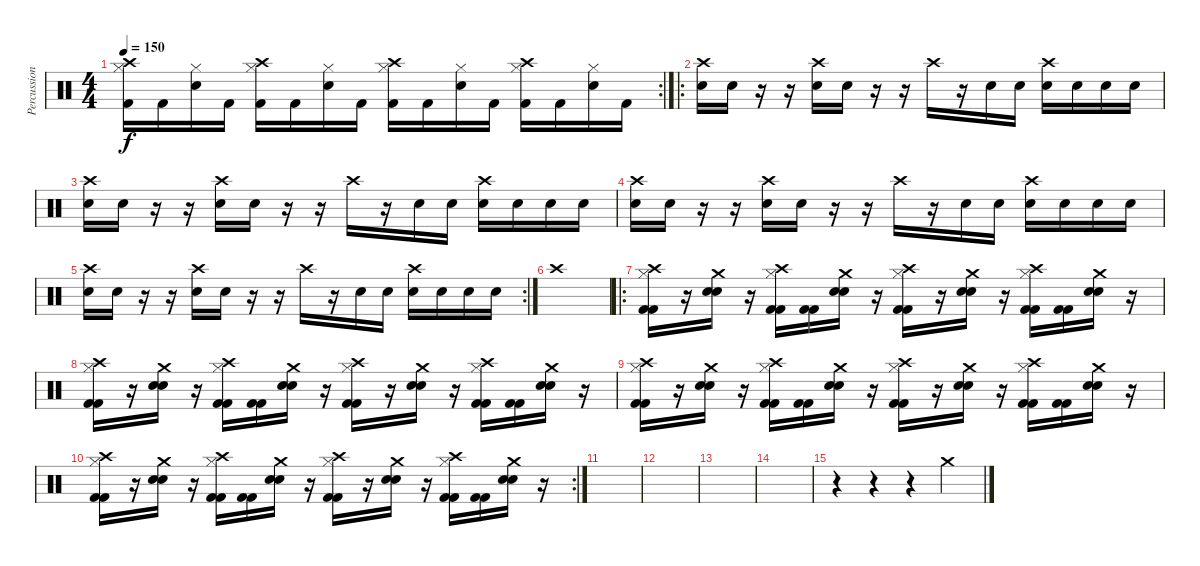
\track ("Percussions" "Percussion") {instrument percussion}
\staff {score}
\articulation defaults
\rc 2
\ts (4 4)
\tempo 150
\clef neutral
\ks c
("Crash high (hit)" "Hi-Hat (closed)" "Kick (hit) 2").16{dy f} "Kick (hit) 2".16 ("Hi-Hat (closed)" "Snare (hit) 2").16 "Kick (hit) 2".16 ("Crash high (hit)" "Hi-Hat (closed)" "Kick (hit) 2").16 "Kick (hit) 2".16 ("Hi-Hat (closed)" "Snare (hit) 2").16 "Kick (hit) 2".16 ("Crash high (hit)" "Hi-Hat (closed)" "Kick (hit) 2").16 "Kick (hit) 2".16 ("Hi-Hat (closed)" "Snare (hit) 2").16 "Kick (hit) 2".16 ("Crash high (hit)" "Hi-Hat (closed)" "Kick (hit) 2").16 "Kick (hit) 2".16 ("Hi-Hat (closed)" "Snare (hit) 2").16 "Kick (hit) 2".16 |
\ro
("Crash high (hit)" "Snare (hit) 2").16 "Snare (hit) 2".16 r.16 r.16 ("Crash high (hit)" "Snare (hit) 2").16 "Snare (hit) 2".16 r.16 r.16 "Crash high (hit)".16 r.16 "Snare (hit) 2".16 "Snare (hit) 2".16 ("Crash high (hit)" "Snare (hit) 2").16 "Snare (hit) 2".16 "Snare (hit) 2".16 "Snare (hit) 2".16 |
("Crash high (hit)" "Snare (hit) 2").16 "Snare (hit) 2".16 r.16 r.16 ("Crash high (hit)" "Snare (hit) 2").16 "Snare (hit) 2".16 r.16 r.16 "Crash high (hit)".16 r.16 "Snare (hit) 2".16 "Snare (hit) 2".16 ("Crash high (hit)" "Snare (hit) 2").16 "Snare (hit) 2".16 "Snare (hit) 2".16 "Snare (hit) 2".16 |
("Crash high (hit)" "Snare (hit) 2").16 "Snare (hit) 2".16 r.16 r.16 ("Crash high (hit)" "Snare (hit) 2").16 "Snare (hit) 2".16 r.16 r.16 "Crash high (hit)".16 r.16 "Snare (hit) 2".16 "Snare (hit) 2".16 ("Crash high (hit)" "Snare (hit) 2").16 "Snare (hit) 2".16 "Snare (hit) 2".16 "Snare (hit) 2".16 |
\rc 2
("Crash high (hit)" "Snare (hit) 2").16 "Snare (hit) 2".16 r.16 r.16 ("Crash high (hit)" "Snare (hit) 2").16 "Snare (hit) 2".16 r.16 r.16 "Crash high (hit)".16 r.16 "Snare (hit) 2".16 "Snare (hit) 2".16 ("Crash high (hit)" "Snare (hit) 2").16 "Snare (hit) 2".16 "Snare (hit) 2".16 "Snare (hit) 2".16 |
"Crash high (hit)".1 |
\ro
("Crash high (hit)" "Hi-Hat (closed)" "Kick (hit) 2" "Kick (hit) 2").16 r.16 ("Crash medium (hit)" "Snare (hit) 2" "Snare (hit) 2").16 r.16 ("Crash high (hit)" "Hi-Hat (closed)" "Kick (hit) 2" "Kick (hit) 2").16 ("Kick (hit) 2" "Kick (hit) 2").16 ("Crash medium (hit)" "Snare (hit) 2" "Snare (hit) 2").16 r.16 ("Crash high (hit)" "Hi-Hat (closed)" "Kick (hit) 2" "Kick (hit) 2").16 r.16 ("Crash medium (hit)" "Snare (hit) 2" "Snare (hit) 2").16 r.16 ("Crash high (hit)" "Hi-Hat (closed)" "Kick (hit) 2" "Kick (hit) 2").16 ("Kick (hit) 2" "Kick (hit) 2").16 ("Crash medium (hit)" "Snare (hit) 2" "Snare (hit) 2").16 r.16 |
("Crash high (hit)" "Hi-Hat (closed)" "Kick (hit) 2" "Kick (hit) 2").16 r.16 ("Crash medium (hit)" "Snare (hit) 2" "Snare (hit) 2").16 r.16 ("Crash high (hit)" "Hi-Hat (closed)" "Kick (hit) 2" "Kick (hit) 2").16 ("Kick (hit) 2" "Kick (hit) 2").16 ("Crash medium (hit)" "Snare (hit) 2" "Snare (hit) 2").16 r.16 ("Crash high (hit)" "Hi-Hat (closed)" "Kick (hit) 2" "Kick (hit) 2").16 r.16 ("Crash medium (hit)" "Snare (hit) 2" "Snare (hit) 2").16 r.16 ("Crash high (hit)" "Hi-Hat (closed)" "Kick (hit) 2" "Kick (hit) 2").16 ("Kick (hit) 2" "Kick (hit) 2").16 ("Crash medium (hit)" "Snare (hit) 2" "Snare (hit) 2").16 r.16 |
("Crash high (hit)" "Hi-Hat (closed)" "Kick (hit) 2" "Kick (hit) 2").16 r.16 ("Crash medium (hit)" "Snare (hit) 2" "Snare (hit) 2").16 r.16 ("Crash high (hit)" "Hi-Hat (closed)" "Kick (hit) 2" "Kick (hit) 2").16 ("Kick (hit) 2" "Kick (hit) 2").16 ("Crash medium (hit)" "Snare (hit) 2" "Snare (hit) 2").16 r.16 ("Crash high (hit)" "Hi-Hat (closed)" "Kick (hit) 2" "Kick (hit) 2").16 r.16 ("Crash medium (hit)" "Snare (hit) 2" "Snare (hit) 2").16 r.16 ("Crash high (hit)" "Hi-Hat (closed)" "Kick (hit) 2" "Kick (hit) 2").16 ("Kick (hit) 2" "Kick (hit) 2").16 ("Crash medium (hit)" "Snare (hit) 2" "Snare (hit) 2").16 r.16 |
\rc 2
("Crash high (hit)" "Hi-Hat (closed)" "Kick (hit) 2" "Kick (hit) 2").16 r.16 ("Crash medium (hit)" "Snare (hit) 2" "Snare (hit) 2").16 r.16 ("Crash high (hit)" "Hi-Hat (closed)" "Kick (hit) 2" "Kick (hit) 2").16 ("Kick (hit) 2" "Kick (hit) 2").16 ("Crash medium (hit)" "Snare (hit) 2" "Snare (hit) 2").16 r.16 ("Crash high (hit)" "Hi-Hat (closed)" "Kick (hit) 2" "Kick (hit) 2").16 r.16 ("Crash medium (hit)" "Snare (hit) 2" "Snare (hit) 2").16 r.16 ("Crash high (hit)" "Hi-Hat (closed)" "Kick (hit) 2" "Kick (hit) 2").16 ("Kick (hit) 2" "Kick (hit) 2").16 ("Crash medium (hit)" "Snare (hit) 2" "Snare (hit) 2").16 r.16 |
|
|
|
|
r.4 r.4 r.4 "Crash medium (hit)".4
